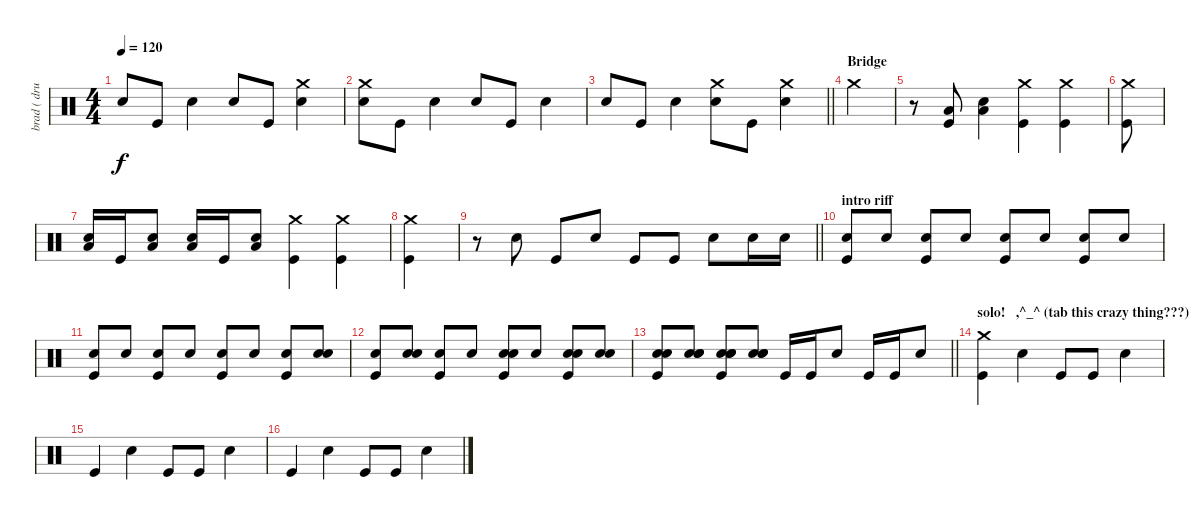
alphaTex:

\track ("brad ( drums)" "brad ( dru") {instrument percussion}
\staff {score}
\articulation defaults
\ts (4 4)
\tempo 120
\clef neutral
\ks c "Electric Snare (hit)".8{dy f} "Kick (hit)".8 "Electric Snare (hit)".4 "Electric Snare (hit)".8 "Kick (hit)".8
("Electric Snare (hit)" "Crash medium (hit)").4 |
("Electric Snare (hit)" "Crash medium (hit)").8 "Kick (hit)".8 "Electric Snare (hit)".4 "Electric Snare (hit)".8 "Kick (hit)".8 "Electric Snare (hit)".4 |
\barLineRight lightlight "Electric Snare (hit)".8 "Kick (hit)".8 "Electric Snare (hit)".4
("Electric Snare (hit)" "Crash medium (hit)").8 "Kick (hit)".8 ("Electric Snare (hit)" "Crash medium (hit)").4 |
\section ("" "Bridge")
"Crash medium (hit)".4 |
r.8 ("Kick (hit)" "Low Floor Tom (hit)").8 ("Electric Snare (hit)" "Low Tom (hit)").4 ("Kick (hit)" "Crash medium (hit)").4 ("Kick (hit)" "Crash medium (hit)").4 |
("Kick (hit)" "Crash medium (hit)").8 |
("Electric Snare (hit)" "Low Floor Tom (hit)").16 "Kick (hit)".16 ("Electric Snare (hit)" "Low Tom (hit)").8 ("Electric Snare (hit)" "Low Floor Tom (hit)").16 "Kick (hit)".16 ("Electric Snare (hit)" "Low Floor Tom (hit)").8 ("Kick (hit)" "Crash medium (hit)").4 ("Kick (hit)" "Crash medium (hit)").4 |
("Kick (hit)" "Crash medium (hit)").4 |
\barLineRight lightlight
r.8 "Electric Snare (hit)".8 "Kick (hit)".8 "Electric Snare (hit)".8 "Kick (hit)".8 "Kick (hit)".8 "Electric Snare (hit)".8 "Electric Snare (hit)".16 "Electric Snare (hit)".16 |
\section ("" "intro riff")
("Kick (hit)" "Electric Snare (hit)").8 "Electric Snare (hit)".8 ("Kick (hit)" "Electric Snare (hit)").8 "Electric Snare (hit)".8 ("Kick (hit)" "Electric Snare (hit)").8 "Electric Snare (hit)".8 ("Kick (hit)" "Electric Snare (hit)").8 "Electric Snare (hit)".8 |
("Kick (hit)" "Electric Snare (hit)").8 "Electric Snare (hit)".8 ("Kick (hit)" "Electric Snare (hit)").8 "Electric Snare (hit)".8 ("Kick (hit)" "Electric Snare (hit)").8 "Electric Snare (hit)".8 ("Kick (hit)" "Electric Snare (hit)").8 ("Electric Snare (hit)" "Electric Snare (hit)").8 |
("Kick (hit)" "Electric Snare (hit)").8 ("Electric Snare (hit)" "Electric Snare (hit)").8 ("Kick (hit)" "Electric Snare (hit)").8 "Electric Snare (hit)".8 ("Kick (hit)" "Electric Snare (hit)" "Electric Snare (hit)").8 "Electric Snare (hit)".8 ("Kick (hit)" "Electric Snare (hit)" "Electric Snare (hit)").8 ("Electric Snare (hit)" "Electric Snare (hit)").8 |
\barLineRight lightlight
("Kick (hit)" "Electric Snare (hit)" "Electric Snare (hit)").8 ("Electric Snare (hit)" "Electric Snare (hit)" "Electric Snare (hit)").8 ("Kick (hit)" "Electric Snare (hit)" "Electric Snare (hit)" "Electric Snare (hit)").8 ("Electric Snare (hit)" "Electric Snare (hit)" "Electric Snare (hit)").8 "Kick (hit)".16 "Kick (hit)".16 "Electric Snare (hit)".8 "Kick (hit)".16 "Kick (hit)".16 "Electric Snare (hit)".8 |
\section ("" "solo!   ,^_^ (tab this crazy thing???)")
("Kick (hit)" "Crash medium (hit)").4 "Electric Snare (hit)".4 "Kick (hit)".8 "Kick (hit)".8 "Electric Snare (hit)".4 |
"Kick (hit)".4 "Electric Snare (hit)".4 "Kick (hit)".8 "Kick (hit)".8 "Electric Snare (hit)".4 |
"Kick (hit)".4 "Electric Snare (hit)".4 "Kick (hit)".8 "Kick (hit)".8 "Electric Snare (hit)".4
